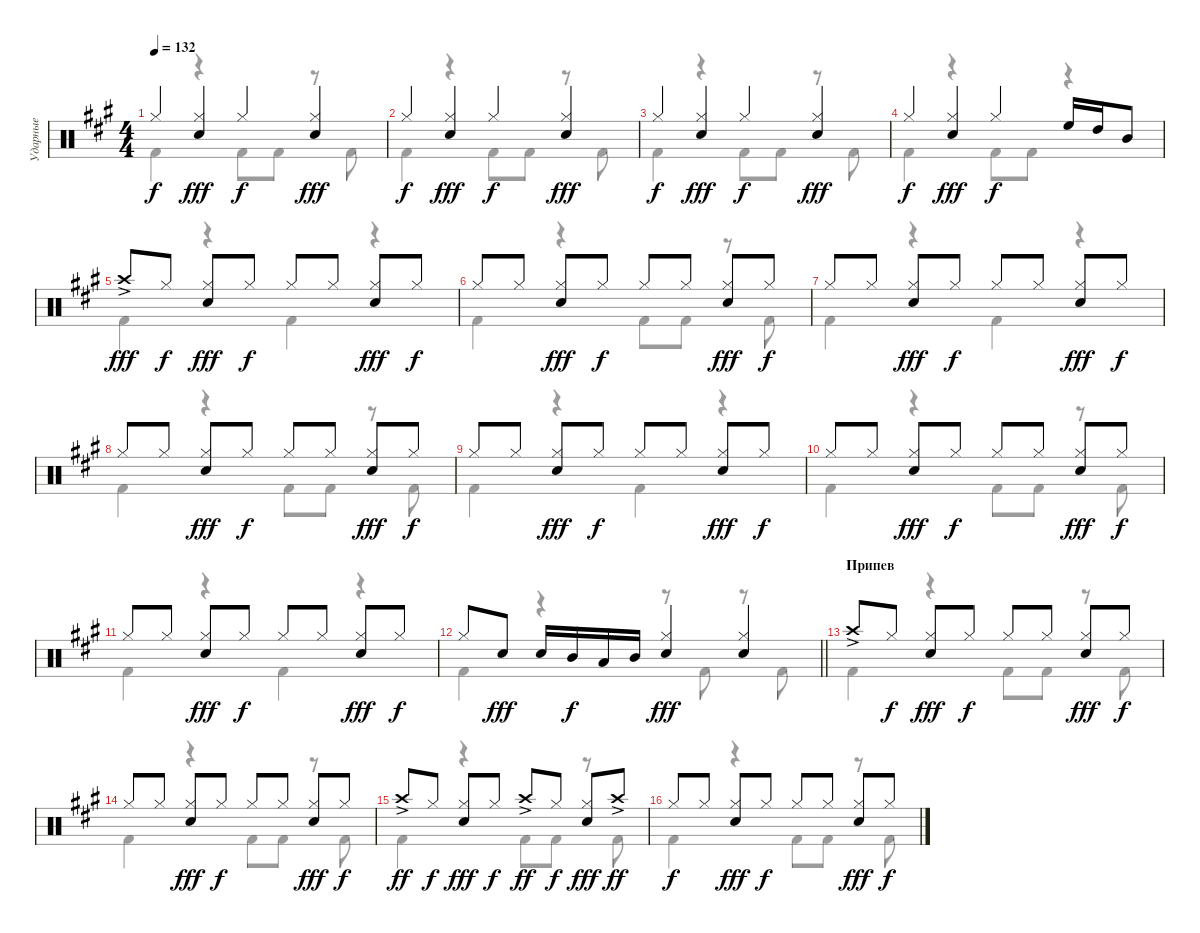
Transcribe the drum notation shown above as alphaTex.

\track ("Ударные" "Ударные") {instrument percussion}
\staff {score}
\articulation defaults
\voice
\ts (4 4)
\tempo 132
\clef neutral
\ks a "Hi-Hat (closed)".4{dy f}
("Electric Snare (hit)" "Hi-Hat (closed)").4{dy fff} "Hi-Hat (closed)".4{dy f} ("Electric Snare (hit)" "Hi-Hat (closed)").4{dy fff} |
"Hi-Hat (closed)".4{dy f} ("Electric Snare (hit)" "Hi-Hat (closed)").4{dy fff} "Hi-Hat (closed)".4{dy f} ("Electric Snare (hit)" "Hi-Hat (closed)").4{dy fff} |
"Hi-Hat (closed)".4{dy f} ("Electric Snare (hit)" "Hi-Hat (closed)").4{dy fff} "Hi-Hat (closed)".4{dy f} ("Electric Snare (hit)" "Hi-Hat (closed)").4{dy fff} |
"Hi-Hat (closed)".4{dy f} ("Electric Snare (hit)" "Hi-Hat (closed)").4{dy fff} "Hi-Hat (closed)".4{dy f} "High Floor Tom (hit)".16 "High Tom (hit)".16 "Mid Tom (hit)".8 |
"Crash high (hit)"{ac}.8{dy fff} "Hi-Hat (closed)".8{dy f} ("Electric Snare (hit)" "Hi-Hat (closed)").8{dy fff} "Hi-Hat (closed)".8{dy f} "Hi-Hat (closed)".8 "Hi-Hat (closed)".8 ("Electric Snare (hit)" "Hi-Hat (closed)").8{dy fff} "Hi-Hat (closed)".8{dy f} |
"Hi-Hat (closed)".8 "Hi-Hat (closed)".8 ("Electric Snare (hit)" "Hi-Hat (closed)").8{dy fff} "Hi-Hat (closed)".8{dy f} "Hi-Hat (closed)".8 "Hi-Hat (closed)".8 ("Electric Snare (hit)" "Hi-Hat (closed)").8{dy fff} "Hi-Hat (closed)".8{dy f} |
"Hi-Hat (closed)".8 "Hi-Hat (closed)".8 ("Electric Snare (hit)" "Hi-Hat (closed)").8{dy fff} "Hi-Hat (closed)".8{dy f} "Hi-Hat (closed)".8 "Hi-Hat (closed)".8 ("Electric Snare (hit)" "Hi-Hat (closed)").8{dy fff} "Hi-Hat (closed)".8{dy f} |
"Hi-Hat (closed)".8 "Hi-Hat (closed)".8 ("Electric Snare (hit)" "Hi-Hat (closed)").8{dy fff} "Hi-Hat (closed)".8{dy f} "Hi-Hat (closed)".8 "Hi-Hat (closed)".8 ("Electric Snare (hit)" "Hi-Hat (closed)").8{dy fff} "Hi-Hat (closed)".8{dy f} |
"Hi-Hat (closed)".8 "Hi-Hat (closed)".8 ("Electric Snare (hit)" "Hi-Hat (closed)").8{dy fff} "Hi-Hat (closed)".8{dy f} "Hi-Hat (closed)".8 "Hi-Hat (closed)".8 ("Electric Snare (hit)" "Hi-Hat (closed)").8{dy fff} "Hi-Hat (closed)".8{dy f} |
"Hi-Hat (closed)".8 "Hi-Hat (closed)".8 ("Electric Snare (hit)" "Hi-Hat (closed)").8{dy fff} "Hi-Hat (closed)".8{dy f} "Hi-Hat (closed)".8 "Hi-Hat (closed)".8 ("Electric Snare (hit)" "Hi-Hat (closed)").8{dy fff} "Hi-Hat (closed)".8{dy f} |
"Hi-Hat (closed)".8 "Hi-Hat (closed)".8 ("Electric Snare (hit)" "Hi-Hat (closed)").8{dy fff} "Hi-Hat (closed)".8{dy f} "Hi-Hat (closed)".8 "Hi-Hat (closed)".8 ("Electric Snare (hit)" "Hi-Hat (closed)").8{dy fff} "Hi-Hat (closed)".8{dy f} |
\barLineRight lightlight "Hi-Hat (closed)".8 "Electric Snare (hit)".8{dy fff} "Electric Snare (hit)".16 "Mid Tom (hit)".16{dy f} "Low Tom (hit)".16 "Mid Tom (hit)".16
("Electric Snare (hit)" "Hi-Hat (closed)").4{dy fff} ("Electric Snare (hit)" "Hi-Hat (closed)").4 |
\section ("" "Припев")
"Crash high (hit)"{ac}.8 "Hi-Hat (closed)".8{dy f} ("Electric Snare (hit)" "Hi-Hat (closed)").8{dy fff} "Hi-Hat (closed)".8{dy f} "Hi-Hat (closed)".8 "Hi-Hat (closed)".8 ("Electric Snare (hit)" "Hi-Hat (closed)").8{dy fff} "Hi-Hat (closed)".8{dy f} |
"Hi-Hat (closed)".8 "Hi-Hat (closed)".8 ("Electric Snare (hit)" "Hi-Hat (closed)").8{dy fff} "Hi-Hat (closed)".8{dy f} "Hi-Hat (closed)".8 "Hi-Hat (closed)".8 ("Electric Snare (hit)" "Hi-Hat (closed)").8{dy fff} "Hi-Hat (closed)".8{dy f} |
"Crash high (hit)"{ac}.8{dy ff} "Hi-Hat (closed)".8{dy f} ("Electric Snare (hit)" "Hi-Hat (closed)").8{dy fff} "Hi-Hat (closed)".8{dy f} "Crash high (hit)"{ac}.8{dy ff} "Hi-Hat (closed)".8{dy f} ("Electric Snare (hit)" "Hi-Hat (closed)").8{dy fff} "Crash high (hit)"{ac}.8{dy ff} |
"Hi-Hat (closed)".8{dy f} "Hi-Hat (closed)".8 ("Electric Snare (hit)" "Hi-Hat (closed)").8{dy fff} "Hi-Hat (closed)".8{dy f} "Hi-Hat (closed)".8 "Hi-Hat (closed)".8 ("Electric Snare (hit)" "Hi-Hat (closed)").8{dy fff} "Hi-Hat (closed)".8{dy f}
\voice
\clef neutral
\ottava regular
\simile none
\ks a "Kick (hit) 2".4{dy f}
r.4 "Kick (hit) 2".8 "Kick (hit) 2".8 r.8 "Kick (hit) 2".8 |
"Kick (hit) 2".4 r.4 "Kick (hit) 2".8 "Kick (hit) 2".8 r.8 "Kick (hit) 2".8 |
"Kick (hit) 2".4 r.4 "Kick (hit) 2".8 "Kick (hit) 2".8 r.8 "Kick (hit) 2".8 |
"Kick (hit) 2".4 r.4 "Kick (hit) 2".8 "Kick (hit) 2".8 r.4 |
"Kick (hit) 2".4 r.4 "Kick (hit) 2".4 r.4 |
"Kick (hit) 2".4 r.4 "Kick (hit) 2".8 "Kick (hit) 2".8 r.8 "Kick (hit) 2".8 |
"Kick (hit) 2".4 r.4 "Kick (hit) 2".4 r.4 |
"Kick (hit) 2".4 r.4 "Kick (hit) 2".8 "Kick (hit) 2".8 r.8 "Kick (hit) 2".8 |
"Kick (hit) 2".4 r.4 "Kick (hit) 2".4 r.4 |
"Kick (hit) 2".4 r.4 "Kick (hit) 2".8 "Kick (hit) 2".8 r.8 "Kick (hit) 2".8 |
"Kick (hit) 2".4 r.4 "Kick (hit) 2".4 r.4 |
\barLineRight lightlight "Kick (hit) 2".4
r.4 r.8 "Kick (hit) 2".8 r.8 "Kick (hit) 2".8 |
"Kick (hit) 2".4 r.4 "Kick (hit) 2".8 "Kick (hit) 2".8 r.8 "Kick (hit) 2".8 |
"Kick (hit) 2".4 r.4 "Kick (hit) 2".8 "Kick (hit) 2".8 r.8 "Kick (hit) 2".8 |
"Kick (hit) 2".4 r.4 "Kick (hit) 2".8 "Kick (hit) 2".8 r.8 "Kick (hit) 2".8 |
"Kick (hit) 2".4 r.4 "Kick (hit) 2".8 "Kick (hit) 2".8 r.8 "Kick (hit) 2".8
